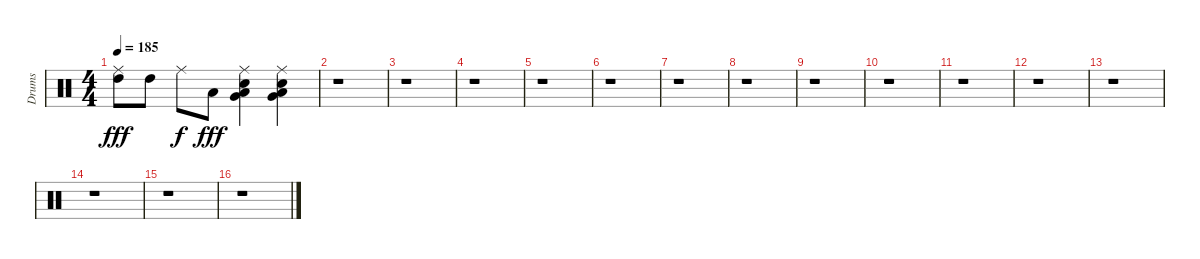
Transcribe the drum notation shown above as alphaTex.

\track ("Drums" "Drums") {instrument percussion}
\staff {score}
\articulation defaults
\ts (4 4)
\tempo 185
\clef neutral
\ks c
("High Tom (hit)" "Ride (middle)").8{dy fff} "High Tom (hit)".8 "Ride (middle)".8{dy f} "Low Tom (hit)".8{dy fff} ("Snare (hit) 2" "Low Floor Tom (hit)" "Very Low Tom (hit)" "Ride (middle)").4 ("Snare (hit) 2" "Low Floor Tom (hit)" "Very Low Tom (hit)" "Ride (middle)").4 |
r.1 |
r.1 |
r.1 |
r.1 |
r.1 |
r.1 |
r.1 |
r.1 |
r.1 |
r.1 |
r.1 |
r.1 |
r.1 |
r.1 |
r.1
